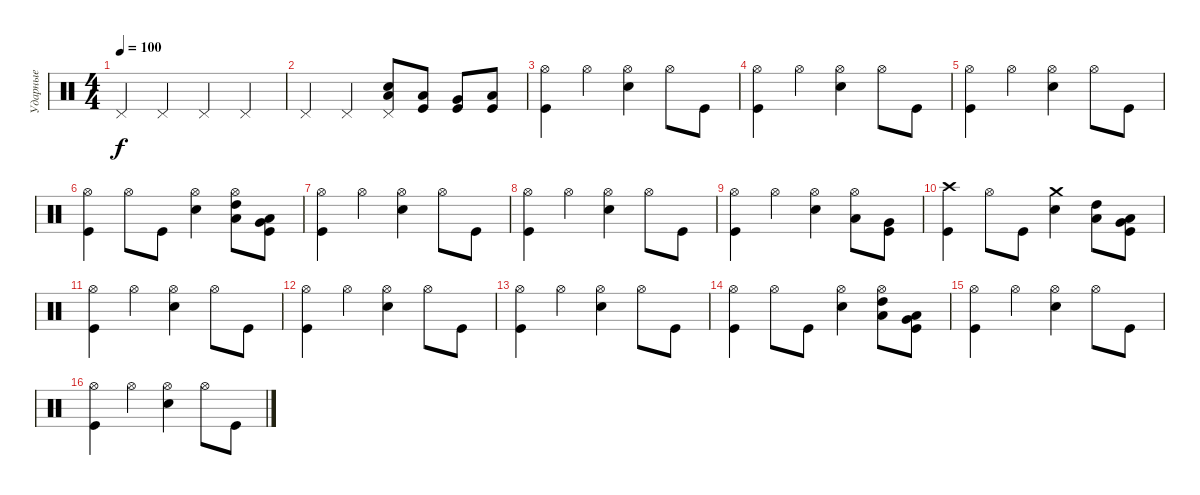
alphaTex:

\track ("Ударные" "Ударные") {instrument percussion}
\staff {score}
\articulation defaults
\ts (4 4)
\tempo 100
\clef neutral
\ks c "Pedal Hi-Hat (hit)".4{dy f} "Pedal Hi-Hat (hit)".4 "Pedal Hi-Hat (hit)".4 "Pedal Hi-Hat (hit)".4
|
"Pedal Hi-Hat (hit)".4 "Pedal Hi-Hat (hit)".4 ("Low Floor Tom (hit)" "Electric Snare (hit)" "Pedal Hi-Hat (hit)").8 ("Low Tom (hit)" "Kick (hit)").8 ("Very Low Tom (hit)" "Kick (hit)").8 ("Low Tom (hit)" "Kick (hit)").8 |
("Kick (hit)" "Hi-Hat (open)").4 "Hi-Hat (open)".4 ("Electric Snare (hit)" "Hi-Hat (open)").4 "Hi-Hat (open)".8 "Kick (hit)".8 |
("Kick (hit)" "Hi-Hat (open)").4 "Hi-Hat (open)".4 ("Electric Snare (hit)" "Hi-Hat (open)").4 "Hi-Hat (open)".8 "Kick (hit)".8 |
("Kick (hit)" "Hi-Hat (open)").4 "Hi-Hat (open)".4 ("Electric Snare (hit)" "Hi-Hat (open)").4 "Hi-Hat (open)".8 "Kick (hit)".8 |
("Kick (hit)" "Hi-Hat (open)").4 "Hi-Hat (open)".8 "Kick (hit)".8 ("Electric Snare (hit)" "Hi-Hat (open)").4 ("Low Tom (hit)" "High Tom (hit)" "Hi-Hat (open)").8 ("Very Low Tom (hit)" "Low Tom (hit)" "Kick (hit)").8 |
("Kick (hit)" "Hi-Hat (open)").4 "Hi-Hat (open)".4 ("Electric Snare (hit)" "Hi-Hat (open)").4 "Hi-Hat (open)".8 "Kick (hit)".8 |
("Kick (hit)" "Hi-Hat (open)").4 "Hi-Hat (open)".4 ("Electric Snare (hit)" "Hi-Hat (open)").4 "Hi-Hat (open)".8 "Kick (hit)".8 |
("Kick (hit)" "Hi-Hat (open)").4 "Hi-Hat (open)".4 ("Electric Snare (hit)" "Hi-Hat (open)").4 ("Low Tom (hit)" "Hi-Hat (open)").8 ("Very Low Tom (hit)" "Kick (hit)").8 |
("Kick (hit)" "Crash high (hit)").4 "Hi-Hat (open)".8 "Kick (hit)".8 ("Electric Snare (hit)" "Crash medium (hit)").4 ("Low Tom (hit)" "High Tom (hit)").8 ("Very Low Tom (hit)" "Low Tom (hit)" "Kick (hit)").8 |
("Kick (hit)" "Hi-Hat (open)").4 "Hi-Hat (open)".4 ("Electric Snare (hit)" "Hi-Hat (open)").4 "Hi-Hat (open)".8 "Kick (hit)".8 |
("Kick (hit)" "Hi-Hat (open)").4 "Hi-Hat (open)".4 ("Electric Snare (hit)" "Hi-Hat (open)").4 "Hi-Hat (open)".8 "Kick (hit)".8 |
("Kick (hit)" "Hi-Hat (open)").4 "Hi-Hat (open)".4 ("Electric Snare (hit)" "Hi-Hat (open)").4 "Hi-Hat (open)".8 "Kick (hit)".8 |
("Kick (hit)" "Hi-Hat (open)").4 "Hi-Hat (open)".8 "Kick (hit)".8 ("Electric Snare (hit)" "Hi-Hat (open)").4 ("Low Tom (hit)" "High Tom (hit)" "Hi-Hat (open)").8 ("Very Low Tom (hit)" "Low Tom (hit)" "Kick (hit)").8 |
("Kick (hit)" "Hi-Hat (open)").4 "Hi-Hat (open)".4 ("Electric Snare (hit)" "Hi-Hat (open)").4 "Hi-Hat (open)".8 "Kick (hit)".8 |
("Kick (hit)" "Hi-Hat (open)").4 "Hi-Hat (open)".4 ("Electric Snare (hit)" "Hi-Hat (open)").4 "Hi-Hat (open)".8 "Kick (hit)".8
